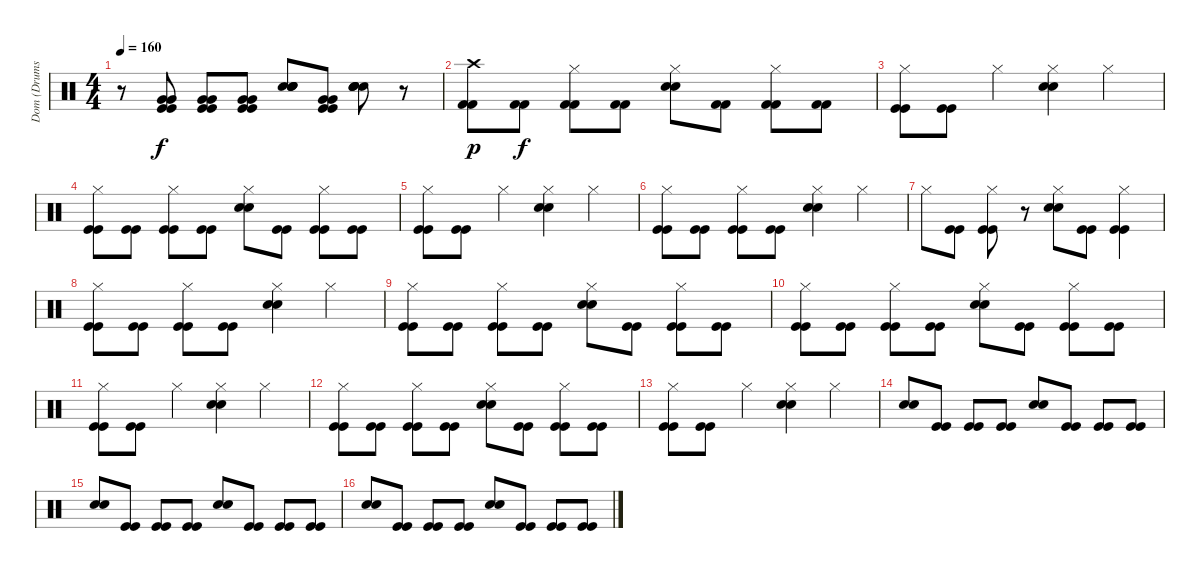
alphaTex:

\track ("Dom (Drums)" "Dom (Drums") {instrument percussion}
\staff {score}
\articulation defaults
\ts (4 4)
\tempo 160
\clef neutral
\ks c
r.8{dy f} ("Very Low Tom (hit)" "Very Low Tom (hit)" "Kick (hit)" "Kick (hit)").8 ("Very Low Tom (hit)" "Very Low Tom (hit)" "Kick (hit)" "Kick (hit)").8 ("Very Low Tom (hit)" "Very Low Tom (hit)" "Kick (hit)" "Kick (hit)").8 ("Snare (hit) 2" "Snare (hit) 2" "Snare (hit) 2" "Snare (hit) 2").8 ("Very Low Tom (hit)" "Very Low Tom (hit)" "Kick (hit)" "Kick (hit)").8 ("Snare (hit) 2" "Snare (hit) 2" "Snare (hit) 2" "Snare (hit) 2").8 r.8 |
("Crash high (hit)" "Kick (hit) 2" "Kick (hit) 2").8{dy p volume 14} ("Kick (hit) 2" "Kick (hit) 2").8{dy f} ("Hi-Hat (closed)" "Kick (hit) 2" "Kick (hit) 2").8 ("Kick (hit) 2" "Kick (hit) 2").8 ("Hi-Hat (closed)" "Snare (hit) 2" "Snare (hit) 2").8 ("Kick (hit) 2" "Kick (hit) 2").8 ("Hi-Hat (closed)" "Kick (hit) 2" "Kick (hit) 2").8 ("Kick (hit) 2" "Kick (hit) 2").8 |
("Hi-Hat (closed)" "Kick (hit)" "Kick (hit)").8 ("Kick (hit)" "Kick (hit)").8 "Hi-Hat (closed)".4 ("Hi-Hat (closed)" "Snare (hit) 2" "Snare (hit) 2").4 "Hi-Hat (closed)".4 |
("Hi-Hat (closed)" "Kick (hit)" "Kick (hit)").8 ("Kick (hit)" "Kick (hit)").8 ("Hi-Hat (closed)" "Kick (hit)" "Kick (hit)").8 ("Kick (hit)" "Kick (hit)").8 ("Hi-Hat (closed)" "Snare (hit) 2" "Snare (hit) 2").8 ("Kick (hit)" "Kick (hit)").8 ("Hi-Hat (closed)" "Kick (hit)" "Kick (hit)").8 ("Kick (hit)" "Kick (hit)").8 |
("Hi-Hat (closed)" "Kick (hit)" "Kick (hit)").8 ("Kick (hit)" "Kick (hit)").8 "Hi-Hat (closed)".4 ("Hi-Hat (closed)" "Snare (hit) 2" "Snare (hit) 2").4 "Hi-Hat (closed)".4 |
("Hi-Hat (closed)" "Kick (hit)" "Kick (hit)").8 ("Kick (hit)" "Kick (hit)").8 ("Hi-Hat (closed)" "Kick (hit)" "Kick (hit)").8 ("Kick (hit)" "Kick (hit)").8 ("Hi-Hat (closed)" "Snare (hit) 2" "Snare (hit) 2").4 "Hi-Hat (closed)".4 |
"Hi-Hat (closed)".8 ("Kick (hit)" "Kick (hit)").8 ("Hi-Hat (closed)" "Kick (hit)" "Kick (hit)").8 r.8 ("Hi-Hat (closed)" "Snare (hit) 2" "Snare (hit) 2").8 ("Kick (hit)" "Kick (hit)").8 ("Hi-Hat (closed)" "Kick (hit)" "Kick (hit)").4 |
("Hi-Hat (closed)" "Kick (hit)" "Kick (hit)").8 ("Kick (hit)" "Kick (hit)").8 ("Hi-Hat (closed)" "Kick (hit)" "Kick (hit)").8 ("Kick (hit)" "Kick (hit)").8 ("Hi-Hat (closed)" "Snare (hit) 2" "Snare (hit) 2").4 "Hi-Hat (closed)".4 |
("Hi-Hat (closed)" "Kick (hit)" "Kick (hit)").8 ("Kick (hit)" "Kick (hit)").8 ("Hi-Hat (closed)" "Kick (hit)" "Kick (hit)").8 ("Kick (hit)" "Kick (hit)").8 ("Hi-Hat (closed)" "Snare (hit) 2" "Snare (hit) 2").8 ("Kick (hit)" "Kick (hit)").8 ("Hi-Hat (closed)" "Kick (hit)" "Kick (hit)").8 ("Kick (hit)" "Kick (hit)").8 |
("Hi-Hat (closed)" "Kick (hit)" "Kick (hit)").8 ("Kick (hit)" "Kick (hit)").8 ("Hi-Hat (closed)" "Kick (hit)" "Kick (hit)").8 ("Kick (hit)" "Kick (hit)").8 ("Hi-Hat (closed)" "Snare (hit) 2" "Snare (hit) 2").8 ("Kick (hit)" "Kick (hit)").8 ("Hi-Hat (closed)" "Kick (hit)" "Kick (hit)").8 ("Kick (hit)" "Kick (hit)").8 |
("Hi-Hat (closed)" "Kick (hit)" "Kick (hit)").8 ("Kick (hit)" "Kick (hit)").8 "Hi-Hat (closed)".4 ("Hi-Hat (closed)" "Snare (hit) 2" "Snare (hit) 2").4 "Hi-Hat (closed)".4 |
("Hi-Hat (closed)" "Kick (hit)" "Kick (hit)").8 ("Kick (hit)" "Kick (hit)").8 ("Hi-Hat (closed)" "Kick (hit)" "Kick (hit)").8 ("Kick (hit)" "Kick (hit)").8 ("Hi-Hat (closed)" "Snare (hit) 2" "Snare (hit) 2").8 ("Kick (hit)" "Kick (hit)").8 ("Hi-Hat (closed)" "Kick (hit)" "Kick (hit)").8 ("Kick (hit)" "Kick (hit)").8 |
("Hi-Hat (closed)" "Kick (hit)" "Kick (hit)").8 ("Kick (hit)" "Kick (hit)").8 "Hi-Hat (closed)".4 ("Hi-Hat (closed)" "Snare (hit) 2" "Snare (hit) 2").4 "Hi-Hat (closed)".4 |
("Snare (hit) 2" "Snare (hit) 2").8 ("Kick (hit)" "Kick (hit)").8 ("Kick (hit)" "Kick (hit)").8 ("Kick (hit)" "Kick (hit)").8 ("Snare (hit) 2" "Snare (hit) 2").8 ("Kick (hit)" "Kick (hit)").8 ("Kick (hit)" "Kick (hit)").8 ("Kick (hit)" "Kick (hit)").8 |
("Snare (hit) 2" "Snare (hit) 2").8 ("Kick (hit)" "Kick (hit)").8 ("Kick (hit)" "Kick (hit)").8 ("Kick (hit)" "Kick (hit)").8 ("Snare (hit) 2" "Snare (hit) 2").8 ("Kick (hit)" "Kick (hit)").8 ("Kick (hit)" "Kick (hit)").8 ("Kick (hit)" "Kick (hit)").8 |
("Snare (hit) 2" "Snare (hit) 2").8 ("Kick (hit)" "Kick (hit)").8 ("Kick (hit)" "Kick (hit)").8 ("Kick (hit)" "Kick (hit)").8 ("Snare (hit) 2" "Snare (hit) 2").8 ("Kick (hit)" "Kick (hit)").8 ("Kick (hit)" "Kick (hit)").8 ("Kick (hit)" "Kick (hit)").8
